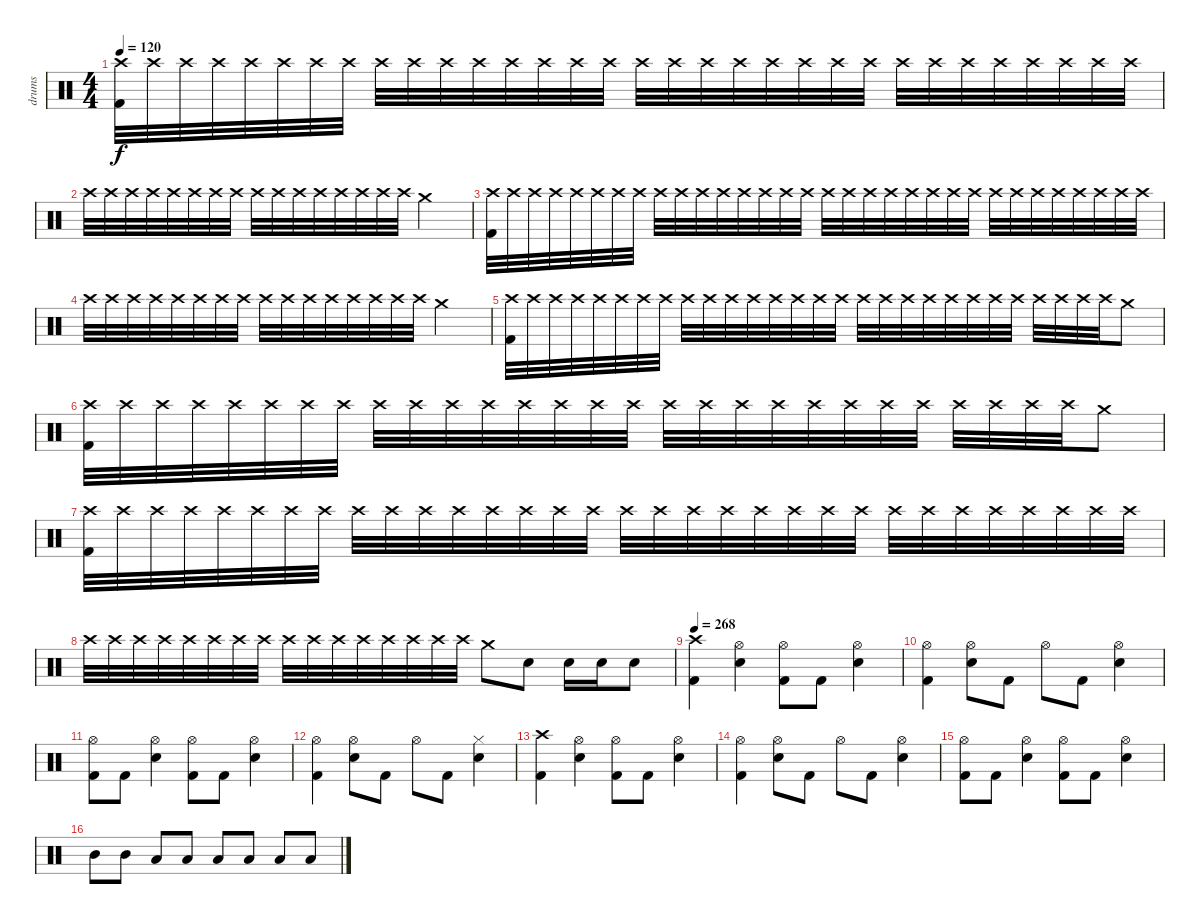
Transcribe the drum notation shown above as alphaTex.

\track ("drums" "drums") {instrument percussion}
\staff {score}
\articulation defaults
\ts (4 4)
\tempo 120
\clef neutral
\ks c
("Crash high (hit)" "Kick (hit) 2").32{dy f} "Crash high (hit)".32 "Crash high (hit)".32 "Crash high (hit)".32 "Crash high (hit)".32 "Crash high (hit)".32 "Crash high (hit)".32 "Crash high (hit)".32 "Crash high (hit)".32 "Crash high (hit)".32 "Crash high (hit)".32 "Crash high (hit)".32 "Crash high (hit)".32 "Crash high (hit)".32 "Crash high (hit)".32 "Crash high (hit)".32 "Crash high (hit)".32 "Crash high (hit)".32 "Crash high (hit)".32 "Crash high (hit)".32 "Crash high (hit)".32 "Crash high (hit)".32 "Crash high (hit)".32 "Crash high (hit)".32 "Crash high (hit)".32 "Crash high (hit)".32 "Crash high (hit)".32 "Crash high (hit)".32 "Crash high (hit)".32 "Crash high (hit)".32 "Crash high (hit)".32 "Crash high (hit)".32 |
"Crash high (hit)".32 "Crash high (hit)".32 "Crash high (hit)".32 "Crash high (hit)".32 "Crash high (hit)".32 "Crash high (hit)".32 "Crash high (hit)".32 "Crash high (hit)".32 "Crash high (hit)".32 "Crash high (hit)".32 "Crash high (hit)".32 "Crash high (hit)".32 "Crash high (hit)".32 "Crash high (hit)".32 "Crash high (hit)".32 "Crash high (hit)".32 "Crash medium (hit)".2 |
("Crash high (hit)" "Kick (hit) 2").32 "Crash high (hit)".32 "Crash high (hit)".32 "Crash high (hit)".32 "Crash high (hit)".32 "Crash high (hit)".32 "Crash high (hit)".32 "Crash high (hit)".32 "Crash high (hit)".32 "Crash high (hit)".32 "Crash high (hit)".32 "Crash high (hit)".32 "Crash high (hit)".32 "Crash high (hit)".32 "Crash high (hit)".32 "Crash high (hit)".32 "Crash high (hit)".32 "Crash high (hit)".32 "Crash high (hit)".32 "Crash high (hit)".32 "Crash high (hit)".32 "Crash high (hit)".32 "Crash high (hit)".32 "Crash high (hit)".32 "Crash high (hit)".32 "Crash high (hit)".32 "Crash high (hit)".32 "Crash high (hit)".32 "Crash high (hit)".32 "Crash high (hit)".32 "Crash high (hit)".32 "Crash high (hit)".32 |
"Crash high (hit)".32 "Crash high (hit)".32 "Crash high (hit)".32 "Crash high (hit)".32 "Crash high (hit)".32 "Crash high (hit)".32 "Crash high (hit)".32 "Crash high (hit)".32 "Crash high (hit)".32 "Crash high (hit)".32 "Crash high (hit)".32 "Crash high (hit)".32 "Crash high (hit)".32 "Crash high (hit)".32 "Crash high (hit)".32 "Crash high (hit)".32 "Crash medium (hit)".2 |
("Crash high (hit)" "Kick (hit) 2").32 "Crash high (hit)".32 "Crash high (hit)".32 "Crash high (hit)".32 "Crash high (hit)".32 "Crash high (hit)".32 "Crash high (hit)".32 "Crash high (hit)".32 "Crash high (hit)".32 "Crash high (hit)".32 "Crash high (hit)".32 "Crash high (hit)".32 "Crash high (hit)".32 "Crash high (hit)".32 "Crash high (hit)".32 "Crash high (hit)".32 "Crash high (hit)".32 "Crash high (hit)".32 "Crash high (hit)".32 "Crash high (hit)".32 "Crash high (hit)".32 "Crash high (hit)".32 "Crash high (hit)".32 "Crash high (hit)".32 "Crash high (hit)".32 "Crash high (hit)".32 "Crash high (hit)".32 "Crash high (hit)".32 "Crash medium (hit)".8 |
("Crash high (hit)" "Kick (hit) 2").32 "Crash high (hit)".32 "Crash high (hit)".32 "Crash high (hit)".32 "Crash high (hit)".32 "Crash high (hit)".32 "Crash high (hit)".32 "Crash high (hit)".32 "Crash high (hit)".32 "Crash high (hit)".32 "Crash high (hit)".32 "Crash high (hit)".32 "Crash high (hit)".32 "Crash high (hit)".32 "Crash high (hit)".32 "Crash high (hit)".32 "Crash high (hit)".32 "Crash high (hit)".32 "Crash high (hit)".32 "Crash high (hit)".32 "Crash high (hit)".32 "Crash high (hit)".32 "Crash high (hit)".32 "Crash high (hit)".32 "Crash high (hit)".32 "Crash high (hit)".32 "Crash high (hit)".32 "Crash high (hit)".32 "Crash medium (hit)".8 |
("Crash high (hit)" "Kick (hit) 2").32 "Crash high (hit)".32 "Crash high (hit)".32 "Crash high (hit)".32 "Crash high (hit)".32 "Crash high (hit)".32 "Crash high (hit)".32 "Crash high (hit)".32 "Crash high (hit)".32 "Crash high (hit)".32 "Crash high (hit)".32 "Crash high (hit)".32 "Crash high (hit)".32 "Crash high (hit)".32 "Crash high (hit)".32 "Crash high (hit)".32 "Crash high (hit)".32 "Crash high (hit)".32 "Crash high (hit)".32 "Crash high (hit)".32 "Crash high (hit)".32 "Crash high (hit)".32 "Crash high (hit)".32 "Crash high (hit)".32 "Crash high (hit)".32 "Crash high (hit)".32 "Crash high (hit)".32 "Crash high (hit)".32 "Crash high (hit)".32 "Crash high (hit)".32 "Crash high (hit)".32 "Crash high (hit)".32 |
"Crash high (hit)".32 "Crash high (hit)".32 "Crash high (hit)".32 "Crash high (hit)".32 "Crash high (hit)".32 "Crash high (hit)".32 "Crash high (hit)".32 "Crash high (hit)".32 "Crash high (hit)".32 "Crash high (hit)".32 "Crash high (hit)".32 "Crash high (hit)".32 "Crash high (hit)".32 "Crash high (hit)".32 "Crash high (hit)".32 "Crash high (hit)".32 "Crash medium (hit)".8 "Electric Snare (hit)".8 "Electric Snare (hit)".16 "Electric Snare (hit)".16 "Electric Snare (hit)".8 |
\tempo 268
("Crash high (hit)" "Kick (hit) 2").4 ("Hi-Hat (open)" "Electric Snare (hit)").4 ("Hi-Hat (open)" "Kick (hit) 2").8 "Kick (hit) 2".8 ("Hi-Hat (open)" "Electric Snare (hit)").4 |
("Hi-Hat (open)" "Kick (hit) 2").4 ("Hi-Hat (open)" "Electric Snare (hit)").8 "Kick (hit) 2".8 "Hi-Hat (open)".8 "Kick (hit) 2".8 ("Hi-Hat (open)" "Electric Snare (hit)").4 |
("Hi-Hat (open)" "Kick (hit) 2").8 "Kick (hit) 2".8 ("Hi-Hat (open)" "Electric Snare (hit)").4 ("Hi-Hat (open)" "Kick (hit) 2").8 "Kick (hit) 2".8 ("Hi-Hat (open)" "Electric Snare (hit)").4 |
("Hi-Hat (open)" "Kick (hit) 2").4 ("Hi-Hat (open)" "Electric Snare (hit)").8 "Kick (hit) 2".8 "Hi-Hat (open)".8 "Kick (hit) 2".8 ("Hi-Hat (closed)" "Electric Snare (hit)").4 |
("Crash high (hit)" "Kick (hit) 2").4 ("Hi-Hat (open)" "Electric Snare (hit)").4 ("Hi-Hat (open)" "Kick (hit) 2").8 "Kick (hit) 2".8 ("Hi-Hat (open)" "Electric Snare (hit)").4 |
("Hi-Hat (open)" "Kick (hit) 2").4 ("Hi-Hat (open)" "Electric Snare (hit)").8 "Kick (hit) 2".8 "Hi-Hat (open)".8 "Kick (hit) 2".8 ("Hi-Hat (open)" "Electric Snare (hit)").4 |
("Hi-Hat (open)" "Kick (hit) 2").8 "Kick (hit) 2".8 ("Hi-Hat (open)" "Electric Snare (hit)").4 ("Hi-Hat (open)" "Kick (hit) 2").8 "Kick (hit) 2".8 ("Hi-Hat (open)" "Electric Snare (hit)").4 |
"Mid Tom (hit)".8 "Mid Tom (hit)".8 "Low Tom (hit)".8 "Low Tom (hit)".8 "Low Tom (hit)".8 "Low Tom (hit)".8 "Low Floor Tom (hit)".8 "Low Floor Tom (hit)".8
